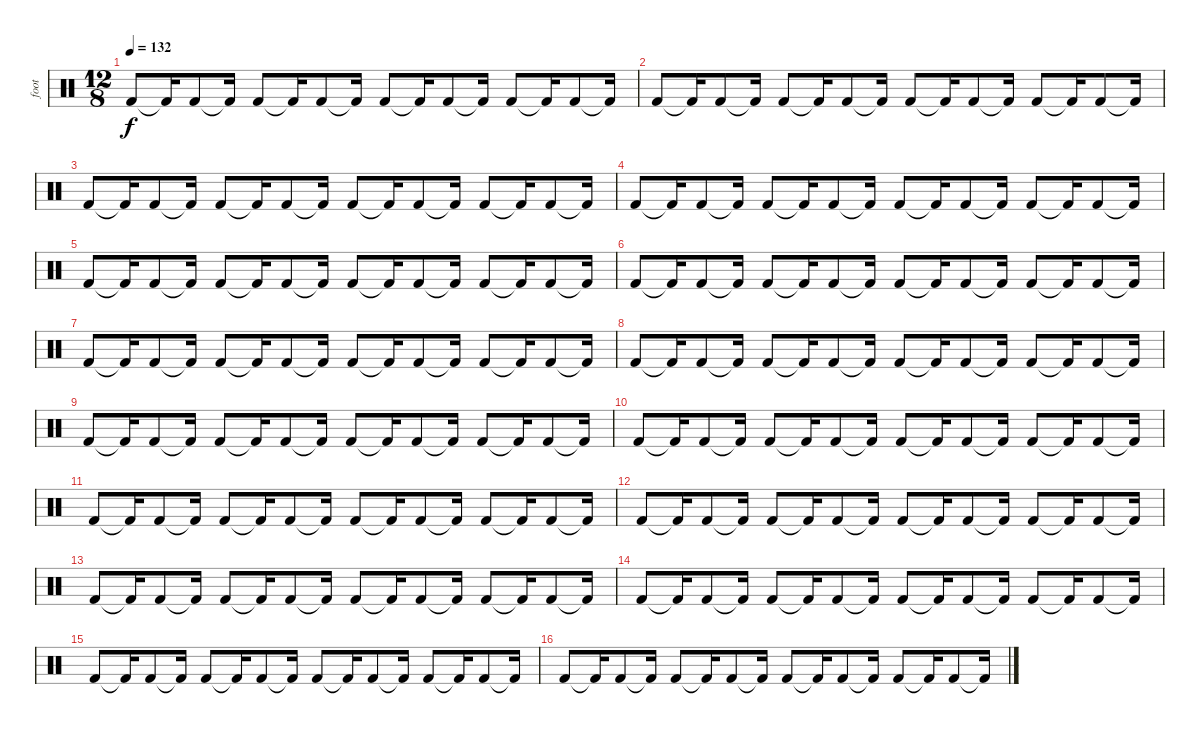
\track ("foot" "foot") {instrument percussion}
\staff {score}
\articulation defaults
\ts (12 8)
\tempo 132
\clef neutral
\ks c "Kick (hit) 2".8{dy f} "Kick (hit) 2"{t}.16 "Kick (hit) 2".8 "Kick (hit) 2"{t}.16 "Kick (hit) 2".8 "Kick (hit) 2"{t}.16 "Kick (hit) 2".8 "Kick (hit) 2"{t}.16 "Kick (hit) 2".8 "Kick (hit) 2"{t}.16 "Kick (hit) 2".8 "Kick (hit) 2"{t}.16 "Kick (hit) 2".8 "Kick (hit) 2"{t}.16 "Kick (hit) 2".8 "Kick (hit) 2"{t}.16
|
"Kick (hit) 2".8 "Kick (hit) 2"{t}.16 "Kick (hit) 2".8 "Kick (hit) 2"{t}.16 "Kick (hit) 2".8 "Kick (hit) 2"{t}.16 "Kick (hit) 2".8 "Kick (hit) 2"{t}.16 "Kick (hit) 2".8 "Kick (hit) 2"{t}.16 "Kick (hit) 2".8 "Kick (hit) 2"{t}.16 "Kick (hit) 2".8 "Kick (hit) 2"{t}.16 "Kick (hit) 2".8 "Kick (hit) 2"{t}.16 |
"Kick (hit) 2".8 "Kick (hit) 2"{t}.16 "Kick (hit) 2".8 "Kick (hit) 2"{t}.16 "Kick (hit) 2".8 "Kick (hit) 2"{t}.16 "Kick (hit) 2".8 "Kick (hit) 2"{t}.16 "Kick (hit) 2".8 "Kick (hit) 2"{t}.16 "Kick (hit) 2".8 "Kick (hit) 2"{t}.16 "Kick (hit) 2".8 "Kick (hit) 2"{t}.16 "Kick (hit) 2".8 "Kick (hit) 2"{t}.16 |
"Kick (hit) 2".8 "Kick (hit) 2"{t}.16 "Kick (hit) 2".8 "Kick (hit) 2"{t}.16 "Kick (hit) 2".8 "Kick (hit) 2"{t}.16 "Kick (hit) 2".8 "Kick (hit) 2"{t}.16 "Kick (hit) 2".8 "Kick (hit) 2"{t}.16 "Kick (hit) 2".8 "Kick (hit) 2"{t}.16 "Kick (hit) 2".8 "Kick (hit) 2"{t}.16 "Kick (hit) 2".8 "Kick (hit) 2"{t}.16 |
"Kick (hit) 2".8 "Kick (hit) 2"{t}.16 "Kick (hit) 2".8 "Kick (hit) 2"{t}.16 "Kick (hit) 2".8 "Kick (hit) 2"{t}.16 "Kick (hit) 2".8 "Kick (hit) 2"{t}.16 "Kick (hit) 2".8 "Kick (hit) 2"{t}.16 "Kick (hit) 2".8 "Kick (hit) 2"{t}.16 "Kick (hit) 2".8 "Kick (hit) 2"{t}.16 "Kick (hit) 2".8 "Kick (hit) 2"{t}.16 |
"Kick (hit) 2".8 "Kick (hit) 2"{t}.16 "Kick (hit) 2".8 "Kick (hit) 2"{t}.16 "Kick (hit) 2".8 "Kick (hit) 2"{t}.16 "Kick (hit) 2".8 "Kick (hit) 2"{t}.16 "Kick (hit) 2".8 "Kick (hit) 2"{t}.16 "Kick (hit) 2".8 "Kick (hit) 2"{t}.16 "Kick (hit) 2".8 "Kick (hit) 2"{t}.16 "Kick (hit) 2".8 "Kick (hit) 2"{t}.16 |
"Kick (hit) 2".8 "Kick (hit) 2"{t}.16 "Kick (hit) 2".8 "Kick (hit) 2"{t}.16 "Kick (hit) 2".8 "Kick (hit) 2"{t}.16 "Kick (hit) 2".8 "Kick (hit) 2"{t}.16 "Kick (hit) 2".8 "Kick (hit) 2"{t}.16 "Kick (hit) 2".8 "Kick (hit) 2"{t}.16 "Kick (hit) 2".8 "Kick (hit) 2"{t}.16 "Kick (hit) 2".8 "Kick (hit) 2"{t}.16 |
"Kick (hit) 2".8 "Kick (hit) 2"{t}.16 "Kick (hit) 2".8 "Kick (hit) 2"{t}.16 "Kick (hit) 2".8 "Kick (hit) 2"{t}.16 "Kick (hit) 2".8 "Kick (hit) 2"{t}.16 "Kick (hit) 2".8 "Kick (hit) 2"{t}.16 "Kick (hit) 2".8 "Kick (hit) 2"{t}.16 "Kick (hit) 2".8 "Kick (hit) 2"{t}.16 "Kick (hit) 2".8 "Kick (hit) 2"{t}.16 |
"Kick (hit) 2".8 "Kick (hit) 2"{t}.16 "Kick (hit) 2".8 "Kick (hit) 2"{t}.16 "Kick (hit) 2".8 "Kick (hit) 2"{t}.16 "Kick (hit) 2".8 "Kick (hit) 2"{t}.16 "Kick (hit) 2".8 "Kick (hit) 2"{t}.16 "Kick (hit) 2".8 "Kick (hit) 2"{t}.16 "Kick (hit) 2".8 "Kick (hit) 2"{t}.16 "Kick (hit) 2".8 "Kick (hit) 2"{t}.16 |
"Kick (hit) 2".8 "Kick (hit) 2"{t}.16 "Kick (hit) 2".8 "Kick (hit) 2"{t}.16 "Kick (hit) 2".8 "Kick (hit) 2"{t}.16 "Kick (hit) 2".8 "Kick (hit) 2"{t}.16 "Kick (hit) 2".8 "Kick (hit) 2"{t}.16 "Kick (hit) 2".8 "Kick (hit) 2"{t}.16 "Kick (hit) 2".8 "Kick (hit) 2"{t}.16 "Kick (hit) 2".8 "Kick (hit) 2"{t}.16 |
"Kick (hit) 2".8 "Kick (hit) 2"{t}.16 "Kick (hit) 2".8 "Kick (hit) 2"{t}.16 "Kick (hit) 2".8 "Kick (hit) 2"{t}.16 "Kick (hit) 2".8 "Kick (hit) 2"{t}.16 "Kick (hit) 2".8 "Kick (hit) 2"{t}.16 "Kick (hit) 2".8 "Kick (hit) 2"{t}.16 "Kick (hit) 2".8 "Kick (hit) 2"{t}.16 "Kick (hit) 2".8 "Kick (hit) 2"{t}.16 |
"Kick (hit) 2".8 "Kick (hit) 2"{t}.16 "Kick (hit) 2".8 "Kick (hit) 2"{t}.16 "Kick (hit) 2".8 "Kick (hit) 2"{t}.16 "Kick (hit) 2".8 "Kick (hit) 2"{t}.16 "Kick (hit) 2".8 "Kick (hit) 2"{t}.16 "Kick (hit) 2".8 "Kick (hit) 2"{t}.16 "Kick (hit) 2".8 "Kick (hit) 2"{t}.16 "Kick (hit) 2".8 "Kick (hit) 2"{t}.16 |
"Kick (hit) 2".8 "Kick (hit) 2"{t}.16 "Kick (hit) 2".8 "Kick (hit) 2"{t}.16 "Kick (hit) 2".8 "Kick (hit) 2"{t}.16 "Kick (hit) 2".8 "Kick (hit) 2"{t}.16 "Kick (hit) 2".8 "Kick (hit) 2"{t}.16 "Kick (hit) 2".8 "Kick (hit) 2"{t}.16 "Kick (hit) 2".8 "Kick (hit) 2"{t}.16 "Kick (hit) 2".8 "Kick (hit) 2"{t}.16 |
"Kick (hit) 2".8 "Kick (hit) 2"{t}.16 "Kick (hit) 2".8 "Kick (hit) 2"{t}.16 "Kick (hit) 2".8 "Kick (hit) 2"{t}.16 "Kick (hit) 2".8 "Kick (hit) 2"{t}.16 "Kick (hit) 2".8 "Kick (hit) 2"{t}.16 "Kick (hit) 2".8 "Kick (hit) 2"{t}.16 "Kick (hit) 2".8 "Kick (hit) 2"{t}.16 "Kick (hit) 2".8 "Kick (hit) 2"{t}.16 |
"Kick (hit) 2".8 "Kick (hit) 2"{t}.16 "Kick (hit) 2".8 "Kick (hit) 2"{t}.16 "Kick (hit) 2".8 "Kick (hit) 2"{t}.16 "Kick (hit) 2".8 "Kick (hit) 2"{t}.16 "Kick (hit) 2".8 "Kick (hit) 2"{t}.16 "Kick (hit) 2".8 "Kick (hit) 2"{t}.16 "Kick (hit) 2".8 "Kick (hit) 2"{t}.16 "Kick (hit) 2".8 "Kick (hit) 2"{t}.16 |
"Kick (hit) 2".8 "Kick (hit) 2"{t}.16 "Kick (hit) 2".8 "Kick (hit) 2"{t}.16 "Kick (hit) 2".8 "Kick (hit) 2"{t}.16 "Kick (hit) 2".8 "Kick (hit) 2"{t}.16 "Kick (hit) 2".8 "Kick (hit) 2"{t}.16 "Kick (hit) 2".8 "Kick (hit) 2"{t}.16 "Kick (hit) 2".8 "Kick (hit) 2"{t}.16 "Kick (hit) 2".8 "Kick (hit) 2"{t}.16
